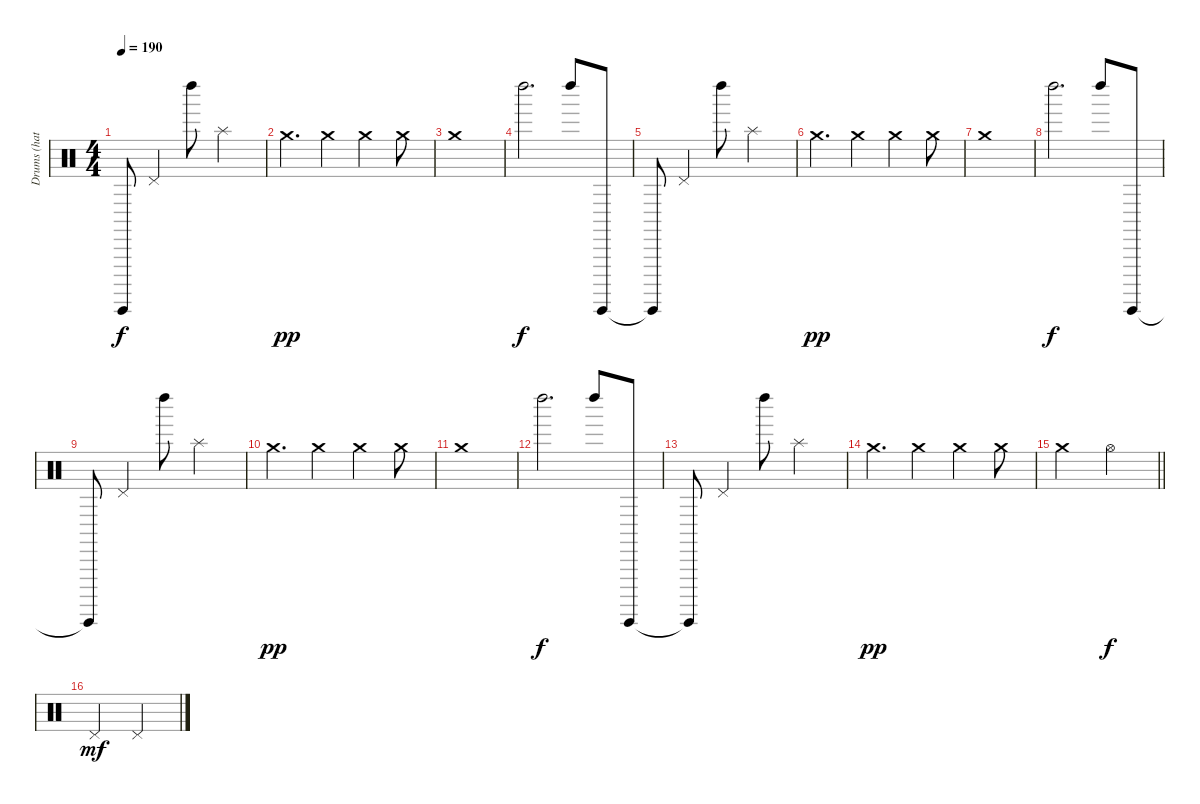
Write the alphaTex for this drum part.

\track ("Drums (hats)" "Drums (hat") {instrument percussion}
\staff {score}
\articulation defaults
\ts (4 4)
\tempo 190
\clef neutral
\ks c "Guiro (hit)"{t}.8{dy f} "Pedal Hi-Hat (hit)".4 "Left Maraca (hit)".8 "Splash (hit)".2
|
"Crash medium (hit)".4{d dy pp} "Crash medium (hit)".4 "Crash medium (hit)".4 "Crash medium (hit)".8 |
"Crash medium (hit)".1 |
"Left Maraca (hit)".2{d dy f} "Left Maraca (hit)".8 "Guiro (hit)".8 |
"Guiro (hit)"{t}.8 "Pedal Hi-Hat (hit)".4 "Left Maraca (hit)".8 "Splash (hit)".2 |
"Crash medium (hit)".4{d dy pp} "Crash medium (hit)".4 "Crash medium (hit)".4 "Crash medium (hit)".8 |
"Crash medium (hit)".1 |
"Left Maraca (hit)".2{d dy f} "Left Maraca (hit)".8 "Guiro (hit)".8 |
"Guiro (hit)"{t}.8 "Pedal Hi-Hat (hit)".4 "Left Maraca (hit)".8 "Splash (hit)".2 |
"Crash medium (hit)".4{d dy pp} "Crash medium (hit)".4 "Crash medium (hit)".4 "Crash medium (hit)".8 |
"Crash medium (hit)".1 |
"Left Maraca (hit)".2{d dy f} "Left Maraca (hit)".8 "Guiro (hit)".8 |
"Guiro (hit)"{t}.8 "Pedal Hi-Hat (hit)".4 "Left Maraca (hit)".8 "Splash (hit)".2 |
"Crash medium (hit)".4{d dy pp} "Crash medium (hit)".4 "Crash medium (hit)".4 "Crash medium (hit)".8 |
\barLineRight lightlight "Crash medium (hit)".2 "Hi-Hat (open)".2{dy f}
|
"Pedal Hi-Hat (hit)".2{dy mf} "Pedal Hi-Hat (hit)".2
